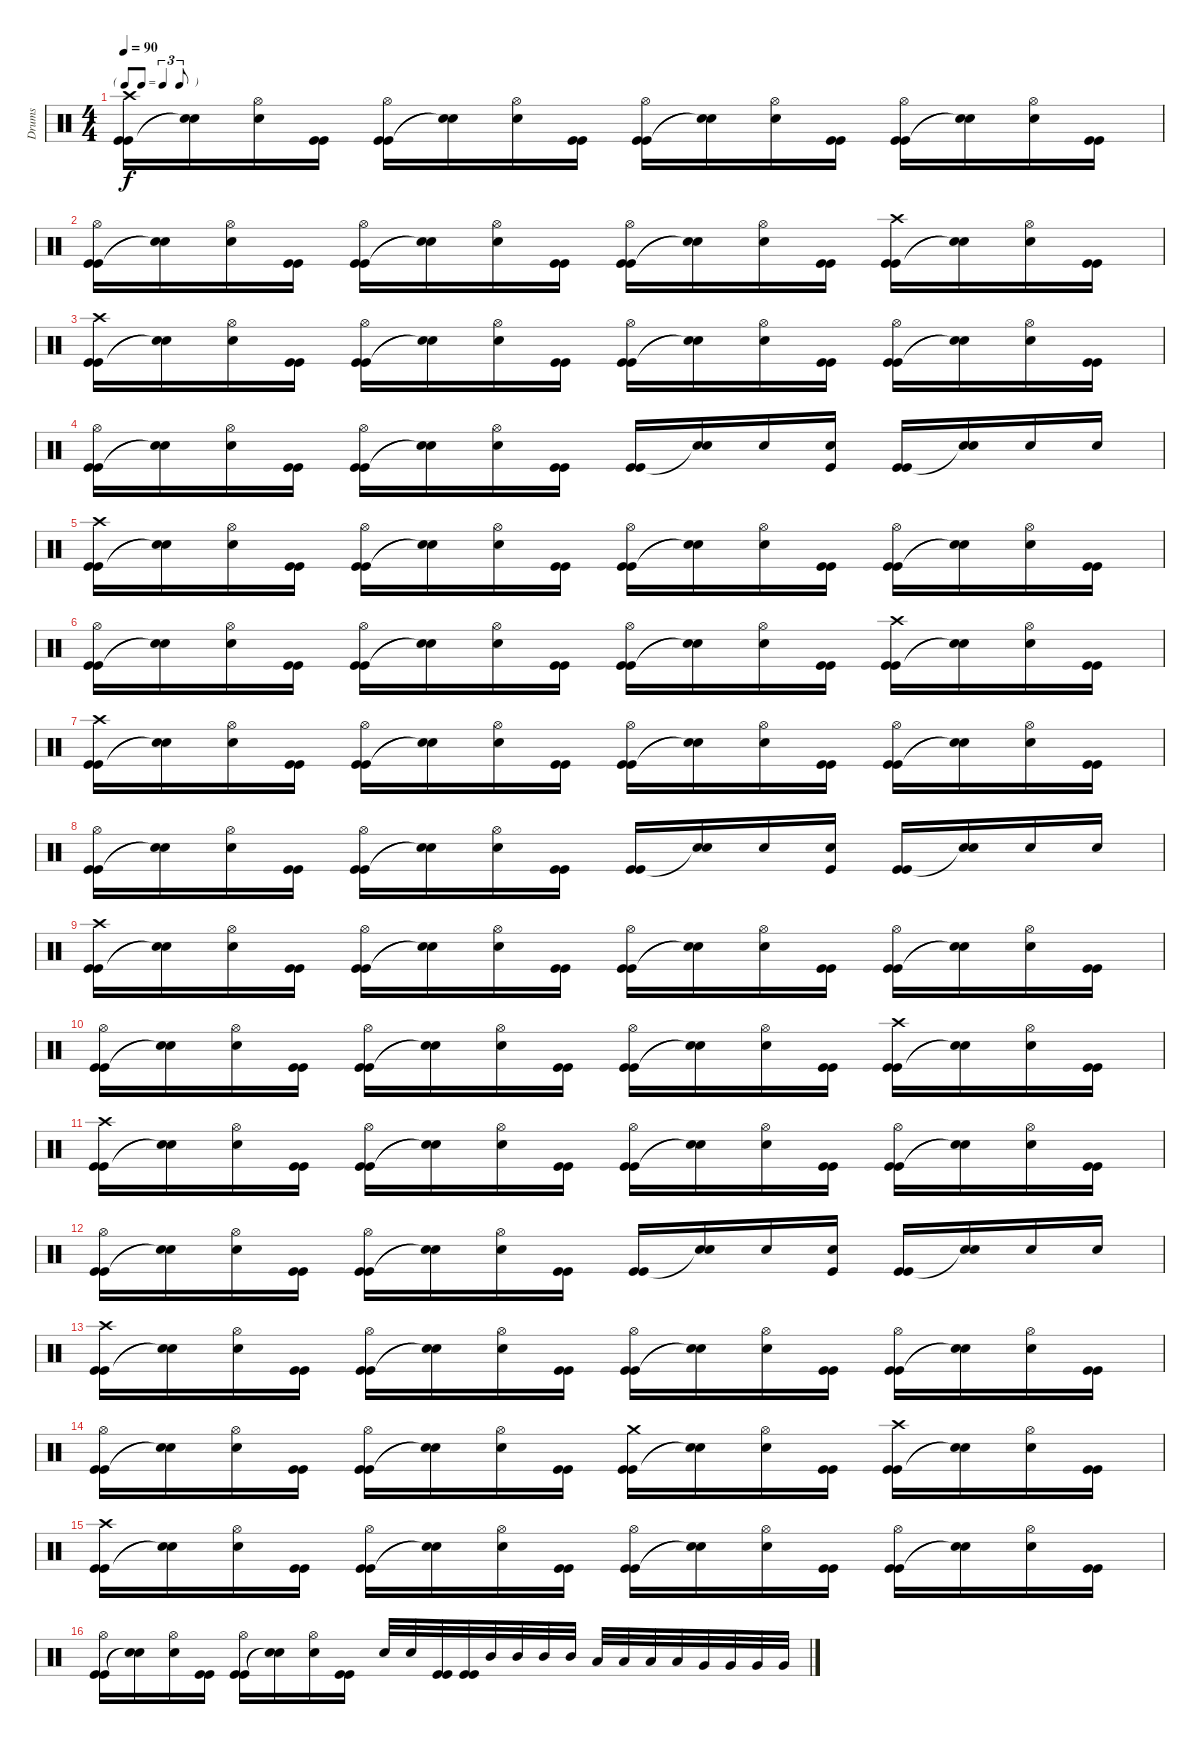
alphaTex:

\track ("Drums" "Drums") {instrument percussion}
\staff {score}
\articulation defaults
\ts (4 4)
\tf triplet8th
\tempo 90
\clef neutral
\ks c
("Kick (hit)" "Kick (hit)" "Crash high (hit)").16{dy f} ("Snare (hit)"{t} "Snare (hit)"{t}).16 ("Snare (hit) 2" "Hi-Hat (open)").16 ("Kick (hit)" "Kick (hit)").16 ("Kick (hit)" "Kick (hit)" "Hi-Hat (open)").16 ("Snare (hit)"{t} "Snare (hit)"{t}).16 ("Snare (hit) 2" "Hi-Hat (open)").16 ("Kick (hit)" "Kick (hit)").16 ("Kick (hit)" "Kick (hit)" "Hi-Hat (open)").16 ("Snare (hit)"{t} "Snare (hit)"{t}).16 ("Snare (hit) 2" "Hi-Hat (open)").16 ("Kick (hit)" "Kick (hit)").16 ("Kick (hit)" "Kick (hit)" "Hi-Hat (open)").16 ("Snare (hit)"{t} "Snare (hit)"{t}).16 ("Snare (hit) 2" "Hi-Hat (open)").16 ("Kick (hit)" "Kick (hit)").16 |
("Kick (hit)" "Kick (hit)" "Hi-Hat (open)").16 ("Snare (hit)"{t} "Snare (hit)"{t}).16 ("Snare (hit) 2" "Hi-Hat (open)").16 ("Kick (hit)" "Kick (hit)").16 ("Kick (hit)" "Kick (hit)" "Hi-Hat (open)").16 ("Snare (hit)"{t} "Snare (hit)"{t}).16 ("Snare (hit) 2" "Hi-Hat (open)").16 ("Kick (hit)" "Kick (hit)").16 ("Kick (hit)" "Kick (hit)" "Hi-Hat (open)").16 ("Snare (hit)"{t} "Snare (hit)"{t}).16 ("Snare (hit) 2" "Hi-Hat (open)").16 ("Kick (hit)" "Kick (hit)").16 ("Kick (hit)" "Kick (hit)" "Crash high (hit)").16 ("Snare (hit)"{t} "Snare (hit)"{t}).16 ("Snare (hit) 2" "Hi-Hat (open)").16 ("Kick (hit)" "Kick (hit)").16 |
("Kick (hit)" "Kick (hit)" "Crash high (hit)").16 ("Snare (hit)"{t} "Snare (hit)"{t}).16 ("Snare (hit) 2" "Hi-Hat (open)").16 ("Kick (hit)" "Kick (hit)").16 ("Kick (hit)" "Kick (hit)" "Hi-Hat (open)").16 ("Snare (hit)"{t} "Snare (hit)"{t}).16 ("Snare (hit) 2" "Hi-Hat (open)").16 ("Kick (hit)" "Kick (hit)").16 ("Kick (hit)" "Kick (hit)" "Hi-Hat (open)").16 ("Snare (hit)"{t} "Snare (hit)"{t}).16 ("Snare (hit) 2" "Hi-Hat (open)").16 ("Kick (hit)" "Kick (hit)").16 ("Kick (hit)" "Kick (hit)" "Hi-Hat (open)").16 ("Snare (hit)"{t} "Snare (hit)"{t}).16 ("Snare (hit) 2" "Hi-Hat (open)").16 ("Kick (hit)" "Kick (hit)").16 |
("Kick (hit)" "Kick (hit)" "Hi-Hat (open)").16 ("Snare (hit)"{t} "Snare (hit)"{t}).16 ("Snare (hit) 2" "Hi-Hat (open)").16 ("Kick (hit)" "Kick (hit)").16 ("Kick (hit)" "Kick (hit)" "Hi-Hat (open)").16 ("Snare (hit)"{t} "Snare (hit)"{t}).16 ("Snare (hit) 2" "Hi-Hat (open)").16 ("Kick (hit)" "Kick (hit)").16 ("Kick (hit)" "Kick (hit)").16 ("Snare (hit) 2" "Snare (hit)"{t}).16 "Snare (hit) 2".16 ("Snare (hit) 2" "Kick (hit)").16 ("Kick (hit)" "Kick (hit)").16 ("Snare (hit) 2" "Snare (hit)"{t}).16 "Snare (hit) 2".16 "Snare (hit) 2".16 |
("Kick (hit)" "Kick (hit)" "Crash high (hit)").16 ("Snare (hit)"{t} "Snare (hit)"{t}).16 ("Snare (hit) 2" "Hi-Hat (open)").16 ("Kick (hit)" "Kick (hit)").16 ("Kick (hit)" "Kick (hit)" "Hi-Hat (open)").16 ("Snare (hit)"{t} "Snare (hit)"{t}).16 ("Snare (hit) 2" "Hi-Hat (open)").16 ("Kick (hit)" "Kick (hit)").16 ("Kick (hit)" "Kick (hit)" "Hi-Hat (open)").16 ("Snare (hit)"{t} "Snare (hit)"{t}).16 ("Snare (hit) 2" "Hi-Hat (open)").16 ("Kick (hit)" "Kick (hit)").16 ("Kick (hit)" "Kick (hit)" "Hi-Hat (open)").16 ("Snare (hit)"{t} "Snare (hit)"{t}).16 ("Snare (hit) 2" "Hi-Hat (open)").16 ("Kick (hit)" "Kick (hit)").16 |
("Kick (hit)" "Kick (hit)" "Hi-Hat (open)").16 ("Snare (hit)"{t} "Snare (hit)"{t}).16 ("Snare (hit) 2" "Hi-Hat (open)").16 ("Kick (hit)" "Kick (hit)").16 ("Kick (hit)" "Kick (hit)" "Hi-Hat (open)").16 ("Snare (hit)"{t} "Snare (hit)"{t}).16 ("Snare (hit) 2" "Hi-Hat (open)").16 ("Kick (hit)" "Kick (hit)").16 ("Kick (hit)" "Kick (hit)" "Hi-Hat (open)").16 ("Snare (hit)"{t} "Snare (hit)"{t}).16 ("Snare (hit) 2" "Hi-Hat (open)").16 ("Kick (hit)" "Kick (hit)").16 ("Kick (hit)" "Kick (hit)" "Crash high (hit)").16 ("Snare (hit)"{t} "Snare (hit)"{t}).16 ("Snare (hit) 2" "Hi-Hat (open)").16 ("Kick (hit)" "Kick (hit)").16 |
("Kick (hit)" "Kick (hit)" "Crash high (hit)").16 ("Snare (hit)"{t} "Snare (hit)"{t}).16 ("Snare (hit) 2" "Hi-Hat (open)").16 ("Kick (hit)" "Kick (hit)").16 ("Kick (hit)" "Kick (hit)" "Hi-Hat (open)").16 ("Snare (hit)"{t} "Snare (hit)"{t}).16 ("Snare (hit) 2" "Hi-Hat (open)").16 ("Kick (hit)" "Kick (hit)").16 ("Kick (hit)" "Kick (hit)" "Hi-Hat (open)").16 ("Snare (hit)"{t} "Snare (hit)"{t}).16 ("Snare (hit) 2" "Hi-Hat (open)").16 ("Kick (hit)" "Kick (hit)").16 ("Kick (hit)" "Kick (hit)" "Hi-Hat (open)").16 ("Snare (hit)"{t} "Snare (hit)"{t}).16 ("Snare (hit) 2" "Hi-Hat (open)").16 ("Kick (hit)" "Kick (hit)").16 |
("Kick (hit)" "Kick (hit)" "Hi-Hat (open)").16 ("Snare (hit)"{t} "Snare (hit)"{t}).16 ("Snare (hit) 2" "Hi-Hat (open)").16 ("Kick (hit)" "Kick (hit)").16 ("Kick (hit)" "Kick (hit)" "Hi-Hat (open)").16 ("Snare (hit)"{t} "Snare (hit)"{t}).16 ("Snare (hit) 2" "Hi-Hat (open)").16 ("Kick (hit)" "Kick (hit)").16 ("Kick (hit)" "Kick (hit)").16 ("Snare (hit) 2" "Snare (hit)"{t}).16 "Snare (hit) 2".16 ("Snare (hit) 2" "Kick (hit)").16 ("Kick (hit)" "Kick (hit)").16 ("Snare (hit) 2" "Snare (hit)"{t}).16 "Snare (hit) 2".16 "Snare (hit) 2".16 |
("Kick (hit)" "Kick (hit)" "Crash high (hit)").16 ("Snare (hit)"{t} "Snare (hit)"{t}).16 ("Snare (hit) 2" "Hi-Hat (open)").16 ("Kick (hit)" "Kick (hit)").16 ("Kick (hit)" "Kick (hit)" "Hi-Hat (open)").16 ("Snare (hit)"{t} "Snare (hit)"{t}).16 ("Snare (hit) 2" "Hi-Hat (open)").16 ("Kick (hit)" "Kick (hit)").16 ("Kick (hit)" "Kick (hit)" "Hi-Hat (open)").16 ("Snare (hit)"{t} "Snare (hit)"{t}).16 ("Snare (hit) 2" "Hi-Hat (open)").16 ("Kick (hit)" "Kick (hit)").16 ("Kick (hit)" "Kick (hit)" "Hi-Hat (open)").16 ("Snare (hit)"{t} "Snare (hit)"{t}).16 ("Snare (hit) 2" "Hi-Hat (open)").16 ("Kick (hit)" "Kick (hit)").16 |
("Kick (hit)" "Kick (hit)" "Hi-Hat (open)").16 ("Snare (hit)"{t} "Snare (hit)"{t}).16 ("Snare (hit) 2" "Hi-Hat (open)").16 ("Kick (hit)" "Kick (hit)").16 ("Kick (hit)" "Kick (hit)" "Hi-Hat (open)").16 ("Snare (hit)"{t} "Snare (hit)"{t}).16 ("Snare (hit) 2" "Hi-Hat (open)").16 ("Kick (hit)" "Kick (hit)").16 ("Kick (hit)" "Kick (hit)" "Hi-Hat (open)").16 ("Snare (hit)"{t} "Snare (hit)"{t}).16 ("Snare (hit) 2" "Hi-Hat (open)").16 ("Kick (hit)" "Kick (hit)").16 ("Kick (hit)" "Kick (hit)" "Crash high (hit)").16 ("Snare (hit)"{t} "Snare (hit)"{t}).16 ("Snare (hit) 2" "Hi-Hat (open)").16 ("Kick (hit)" "Kick (hit)").16 |
("Kick (hit)" "Kick (hit)" "Crash high (hit)").16 ("Snare (hit)"{t} "Snare (hit)"{t}).16 ("Snare (hit) 2" "Hi-Hat (open)").16 ("Kick (hit)" "Kick (hit)").16 ("Kick (hit)" "Kick (hit)" "Hi-Hat (open)").16 ("Snare (hit)"{t} "Snare (hit)"{t}).16 ("Snare (hit) 2" "Hi-Hat (open)").16 ("Kick (hit)" "Kick (hit)").16 ("Kick (hit)" "Kick (hit)" "Hi-Hat (open)").16 ("Snare (hit)"{t} "Snare (hit)"{t}).16 ("Snare (hit) 2" "Hi-Hat (open)").16 ("Kick (hit)" "Kick (hit)").16 ("Kick (hit)" "Kick (hit)" "Hi-Hat (open)").16 ("Snare (hit)"{t} "Snare (hit)"{t}).16 ("Snare (hit) 2" "Hi-Hat (open)").16 ("Kick (hit)" "Kick (hit)").16 |
("Kick (hit)" "Kick (hit)" "Hi-Hat (open)").16 ("Snare (hit)"{t} "Snare (hit)"{t}).16 ("Snare (hit) 2" "Hi-Hat (open)").16 ("Kick (hit)" "Kick (hit)").16 ("Kick (hit)" "Kick (hit)" "Hi-Hat (open)").16 ("Snare (hit)"{t} "Snare (hit)"{t}).16 ("Snare (hit) 2" "Hi-Hat (open)").16 ("Kick (hit)" "Kick (hit)").16 ("Kick (hit)" "Kick (hit)").16 ("Snare (hit) 2" "Snare (hit)"{t}).16 "Snare (hit) 2".16 ("Snare (hit) 2" "Kick (hit)").16 ("Kick (hit)" "Kick (hit)").16 ("Snare (hit) 2" "Snare (hit)"{t}).16 "Snare (hit) 2".16 "Snare (hit) 2".16 |
("Kick (hit)" "Kick (hit)" "Crash high (hit)").16 ("Snare (hit)"{t} "Snare (hit)"{t}).16 ("Snare (hit) 2" "Hi-Hat (open)").16 ("Kick (hit)" "Kick (hit)").16 ("Kick (hit)" "Kick (hit)" "Hi-Hat (open)").16 ("Snare (hit)"{t} "Snare (hit)"{t}).16 ("Snare (hit) 2" "Hi-Hat (open)").16 ("Kick (hit)" "Kick (hit)").16 ("Kick (hit)" "Kick (hit)" "Hi-Hat (open)").16 ("Snare (hit)"{t} "Snare (hit)"{t}).16 ("Snare (hit) 2" "Hi-Hat (open)").16 ("Kick (hit)" "Kick (hit)").16 ("Kick (hit)" "Kick (hit)" "Hi-Hat (open)").16 ("Snare (hit)"{t} "Snare (hit)"{t}).16 ("Snare (hit) 2" "Hi-Hat (open)").16 ("Kick (hit)" "Kick (hit)").16 |
("Kick (hit)" "Kick (hit)" "Hi-Hat (open)").16 ("Snare (hit)"{t} "Snare (hit)"{t}).16 ("Snare (hit) 2" "Hi-Hat (open)").16 ("Kick (hit)" "Kick (hit)").16 ("Kick (hit)" "Kick (hit)" "Hi-Hat (open)").16 ("Snare (hit)"{t} "Snare (hit)"{t}).16 ("Snare (hit) 2" "Hi-Hat (open)").16 ("Kick (hit)" "Kick (hit)").16 ("Kick (hit)" "Kick (hit)" "Crash medium (hit)").16 ("Snare (hit)"{t} "Snare (hit)"{t}).16 ("Snare (hit) 2" "Hi-Hat (open)").16 ("Kick (hit)" "Kick (hit)").16 ("Kick (hit)" "Kick (hit)" "Crash high (hit)").16 ("Snare (hit)"{t} "Snare (hit)"{t}).16 ("Snare (hit) 2" "Hi-Hat (open)").16 ("Kick (hit)" "Kick (hit)").16 |
("Kick (hit)" "Kick (hit)" "Crash high (hit)").16 ("Snare (hit)"{t} "Snare (hit)"{t}).16 ("Snare (hit) 2" "Hi-Hat (open)").16 ("Kick (hit)" "Kick (hit)").16 ("Kick (hit)" "Kick (hit)" "Hi-Hat (open)").16 ("Snare (hit)"{t} "Snare (hit)"{t}).16 ("Snare (hit) 2" "Hi-Hat (open)").16 ("Kick (hit)" "Kick (hit)").16 ("Kick (hit)" "Kick (hit)" "Hi-Hat (open)").16 ("Snare (hit)"{t} "Snare (hit)"{t}).16 ("Snare (hit) 2" "Hi-Hat (open)").16 ("Kick (hit)" "Kick (hit)").16 ("Kick (hit)" "Kick (hit)" "Hi-Hat (open)").16 ("Snare (hit)"{t} "Snare (hit)"{t}).16 ("Snare (hit) 2" "Hi-Hat (open)").16 ("Kick (hit)" "Kick (hit)").16 |
("Kick (hit)" "Kick (hit)" "Hi-Hat (open)").16 ("Snare (hit)"{t} "Snare (hit)"{t}).16 ("Snare (hit) 2" "Hi-Hat (open)").16 ("Kick (hit)" "Kick (hit)").16 ("Kick (hit)" "Kick (hit)" "Hi-Hat (open)").16 ("Snare (hit)"{t} "Snare (hit)"{t}).16 ("Snare (hit) 2" "Hi-Hat (open)").16 ("Kick (hit)" "Kick (hit)").16 "Snare (hit) 2".32 "Snare (hit) 2".32 ("Kick (hit)" "Kick (hit)").32 ("Kick (hit)" "Kick (hit)").32 "Mid Tom (hit)".32 "Mid Tom (hit)".32 "Mid Tom (hit)".32 "Mid Tom (hit)".32 "Low Tom (hit)".32 "Low Tom (hit)".32 "Low Tom (hit)".32 "Low Tom (hit)".32 "Very Low Tom (hit)".32 "Very Low Tom (hit)".32 "Very Low Tom (hit)".32 "Very Low Tom (hit)".32
